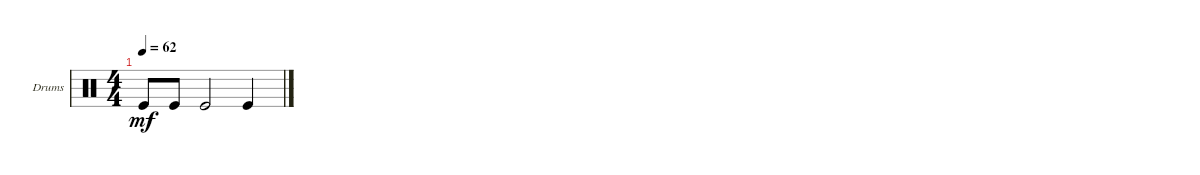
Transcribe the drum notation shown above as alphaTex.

\defaultSystemsLayout 4
\bracketExtendMode groupsimilarinstruments
\firstSystemTrackNameOrientation horizontal
\otherSystemsTrackNameOrientation horizontal
\track ("Drumkit" "Drums") {instrument percussion}
\staff {score}
\articulation defaults
\ts (4 4)
\tempo 62
\clef neutral
\ks c "Kick (hit)".8{dy mf} "Kick (hit)".8 "Kick (hit)".2 "Kick (hit)".4
